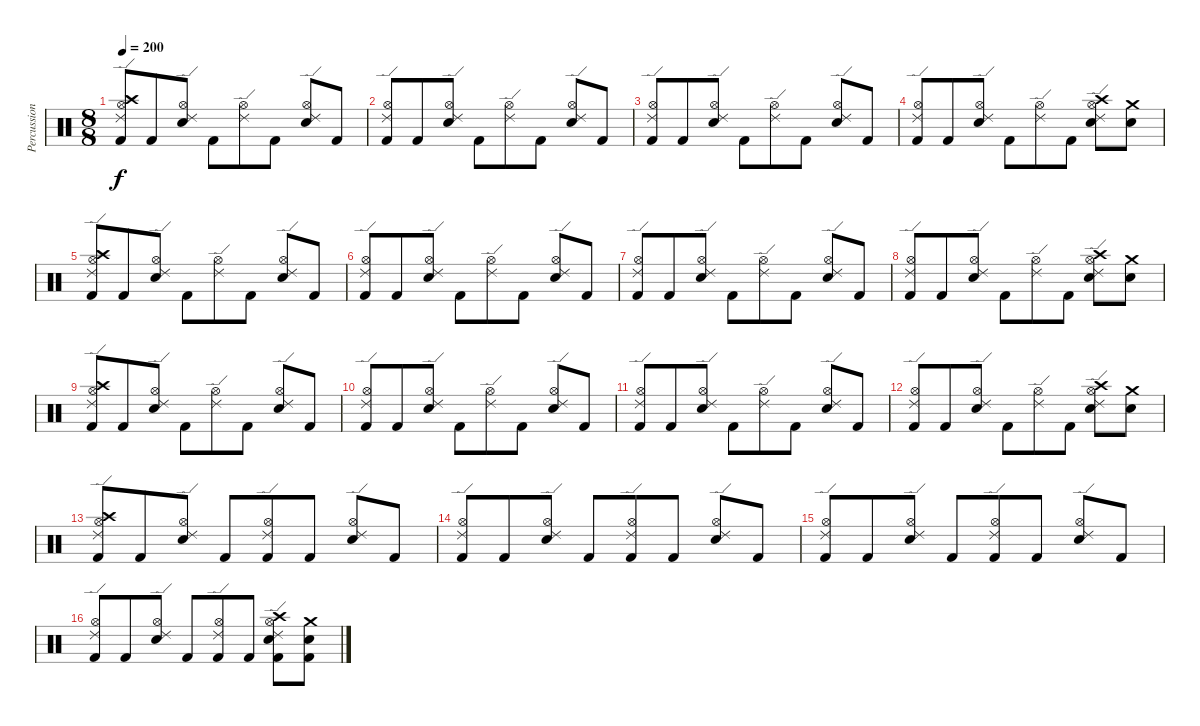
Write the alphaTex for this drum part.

\track ("Percussions" "Percussion") {instrument percussion}
\staff {score}
\articulation defaults
\ts (8 8)
\tempo 200
\clef neutral
\ks c
("Ride (edge) 2" "Crash high (hit)" "Hi-Hat (open)" "Kick (hit) 2").8{dy f} "Kick (hit) 2".8 ("Ride (edge) 2" "Hi-Hat (open)" "Electric Snare (hit)").8 "Kick (hit) 2".8 ("Ride (edge) 2" "Hi-Hat (open)").8 "Kick (hit) 2".8 ("Ride (edge) 2" "Hi-Hat (open)" "Electric Snare (hit)").8 "Kick (hit) 2".8 |
("Ride (edge) 2" "Hi-Hat (open)" "Kick (hit) 2").8 "Kick (hit) 2".8 ("Ride (edge) 2" "Hi-Hat (open)" "Electric Snare (hit)").8 "Kick (hit) 2".8 ("Ride (edge) 2" "Hi-Hat (open)").8 "Kick (hit) 2".8 ("Ride (edge) 2" "Hi-Hat (open)" "Electric Snare (hit)").8 "Kick (hit) 2".8 |
("Ride (edge) 2" "Hi-Hat (open)" "Kick (hit) 2").8 "Kick (hit) 2".8 ("Ride (edge) 2" "Hi-Hat (open)" "Electric Snare (hit)").8 "Kick (hit) 2".8 ("Ride (edge) 2" "Hi-Hat (open)").8 "Kick (hit) 2".8 ("Ride (edge) 2" "Hi-Hat (open)" "Electric Snare (hit)").8 "Kick (hit) 2".8 |
("Ride (edge) 2" "Hi-Hat (open)" "Kick (hit) 2").8 "Kick (hit) 2".8 ("Ride (edge) 2" "Hi-Hat (open)" "Electric Snare (hit)").8 "Kick (hit) 2".8 ("Ride (edge) 2" "Hi-Hat (open)").8 "Kick (hit) 2".8 ("Ride (edge) 2" "Crash high (hit)" "Hi-Hat (open)" "Electric Snare (hit)").8 ("Crash medium (hit)" "Electric Snare (hit)").8 |
("Ride (edge) 2" "Crash high (hit)" "Hi-Hat (open)" "Kick (hit) 2").8 "Kick (hit) 2".8 ("Ride (edge) 2" "Hi-Hat (open)" "Electric Snare (hit)").8 "Kick (hit) 2".8 ("Ride (edge) 2" "Hi-Hat (open)").8 "Kick (hit) 2".8 ("Ride (edge) 2" "Hi-Hat (open)" "Electric Snare (hit)").8 "Kick (hit) 2".8 |
("Ride (edge) 2" "Hi-Hat (open)" "Kick (hit) 2").8 "Kick (hit) 2".8 ("Ride (edge) 2" "Hi-Hat (open)" "Electric Snare (hit)").8 "Kick (hit) 2".8 ("Ride (edge) 2" "Hi-Hat (open)").8 "Kick (hit) 2".8 ("Ride (edge) 2" "Hi-Hat (open)" "Electric Snare (hit)").8 "Kick (hit) 2".8 |
("Ride (edge) 2" "Hi-Hat (open)" "Kick (hit) 2").8 "Kick (hit) 2".8 ("Ride (edge) 2" "Hi-Hat (open)" "Electric Snare (hit)").8 "Kick (hit) 2".8 ("Ride (edge) 2" "Hi-Hat (open)").8 "Kick (hit) 2".8 ("Ride (edge) 2" "Hi-Hat (open)" "Electric Snare (hit)").8 "Kick (hit) 2".8 |
("Ride (edge) 2" "Hi-Hat (open)" "Kick (hit) 2").8 "Kick (hit) 2".8 ("Ride (edge) 2" "Hi-Hat (open)" "Electric Snare (hit)").8 "Kick (hit) 2".8 ("Ride (edge) 2" "Hi-Hat (open)").8 "Kick (hit) 2".8 ("Ride (edge) 2" "Crash high (hit)" "Hi-Hat (open)" "Electric Snare (hit)").8 ("Crash medium (hit)" "Electric Snare (hit)").8 |
("Ride (edge) 2" "Crash high (hit)" "Hi-Hat (open)" "Kick (hit) 2").8 "Kick (hit) 2".8 ("Ride (edge) 2" "Hi-Hat (open)" "Electric Snare (hit)").8 "Kick (hit) 2".8 ("Ride (edge) 2" "Hi-Hat (open)").8 "Kick (hit) 2".8 ("Ride (edge) 2" "Hi-Hat (open)" "Electric Snare (hit)").8 "Kick (hit) 2".8 |
("Ride (edge) 2" "Hi-Hat (open)" "Kick (hit) 2").8 "Kick (hit) 2".8 ("Ride (edge) 2" "Hi-Hat (open)" "Electric Snare (hit)").8 "Kick (hit) 2".8 ("Ride (edge) 2" "Hi-Hat (open)").8 "Kick (hit) 2".8 ("Ride (edge) 2" "Hi-Hat (open)" "Electric Snare (hit)").8 "Kick (hit) 2".8 |
("Ride (edge) 2" "Hi-Hat (open)" "Kick (hit) 2").8 "Kick (hit) 2".8 ("Ride (edge) 2" "Hi-Hat (open)" "Electric Snare (hit)").8 "Kick (hit) 2".8 ("Ride (edge) 2" "Hi-Hat (open)").8 "Kick (hit) 2".8 ("Ride (edge) 2" "Hi-Hat (open)" "Electric Snare (hit)").8 "Kick (hit) 2".8 |
("Ride (edge) 2" "Hi-Hat (open)" "Kick (hit) 2").8 "Kick (hit) 2".8 ("Ride (edge) 2" "Hi-Hat (open)" "Electric Snare (hit)").8 "Kick (hit) 2".8 ("Ride (edge) 2" "Hi-Hat (open)").8 "Kick (hit) 2".8 ("Ride (edge) 2" "Crash high (hit)" "Hi-Hat (open)" "Electric Snare (hit)").8 ("Crash medium (hit)" "Electric Snare (hit)").8 |
("Crash high (hit)" "Hi-Hat (open)" "Ride (edge) 2" "Kick (hit) 2").8 "Kick (hit) 2".8 ("Hi-Hat (open)" "Ride (edge) 2" "Electric Snare (hit)").8 "Kick (hit) 2".8 ("Hi-Hat (open)" "Ride (edge) 2" "Kick (hit) 2").8 "Kick (hit) 2".8 ("Hi-Hat (open)" "Ride (edge) 2" "Electric Snare (hit)").8 "Kick (hit) 2".8 |
("Hi-Hat (open)" "Ride (edge) 2" "Kick (hit) 2").8 "Kick (hit) 2".8 ("Hi-Hat (open)" "Ride (edge) 2" "Electric Snare (hit)").8 "Kick (hit) 2".8 ("Hi-Hat (open)" "Ride (edge) 2" "Kick (hit) 2").8 "Kick (hit) 2".8 ("Hi-Hat (open)" "Ride (edge) 2" "Electric Snare (hit)").8 "Kick (hit) 2".8 |
("Hi-Hat (open)" "Ride (edge) 2" "Kick (hit) 2").8 "Kick (hit) 2".8 ("Hi-Hat (open)" "Ride (edge) 2" "Electric Snare (hit)").8 "Kick (hit) 2".8 ("Hi-Hat (open)" "Ride (edge) 2" "Kick (hit) 2").8 "Kick (hit) 2".8 ("Hi-Hat (open)" "Ride (edge) 2" "Electric Snare (hit)").8 "Kick (hit) 2".8 |
("Hi-Hat (open)" "Ride (edge) 2" "Kick (hit) 2").8 "Kick (hit) 2".8 ("Hi-Hat (open)" "Ride (edge) 2" "Electric Snare (hit)").8 "Kick (hit) 2".8 ("Hi-Hat (open)" "Ride (edge) 2" "Kick (hit) 2").8 "Kick (hit) 2".8 ("Crash high (hit)" "Hi-Hat (open)" "Ride (edge) 2" "Electric Snare (hit)" "Kick (hit) 2").8 ("Crash medium (hit)" "Electric Snare (hit)" "Kick (hit) 2").8
